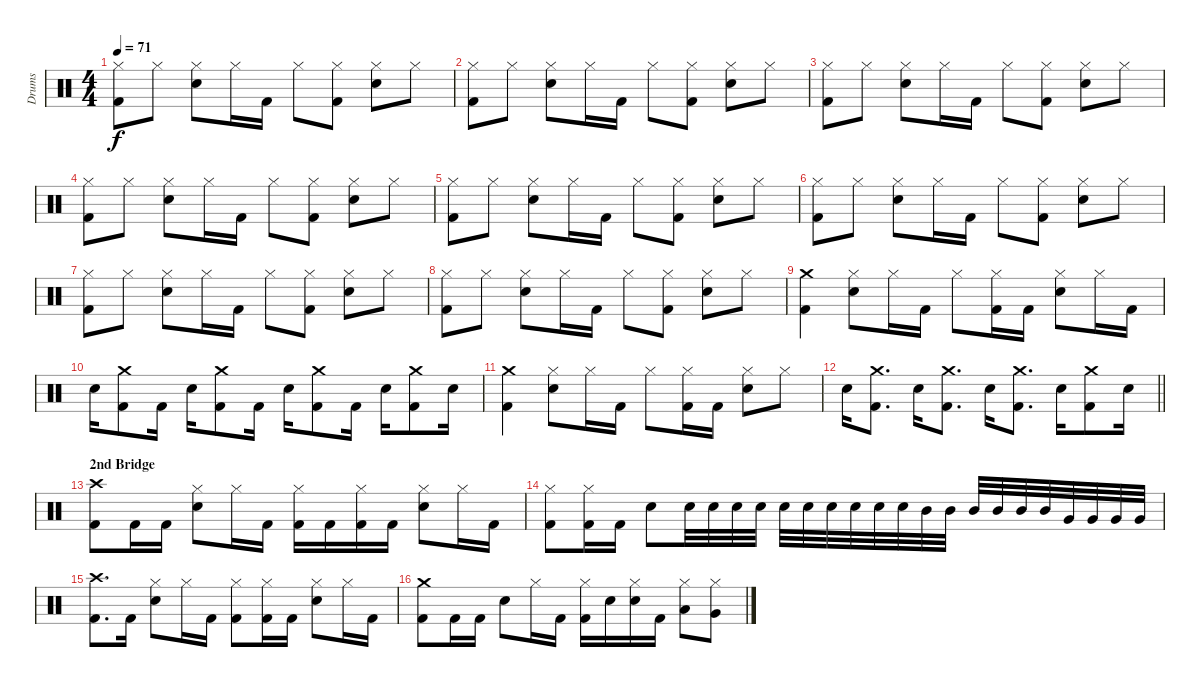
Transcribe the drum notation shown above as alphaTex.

\track ("Drums" "Drums") {instrument percussion}
\staff {score}
\articulation defaults
\ts (4 4)
\tempo 71
\clef neutral
\ks c
("Hi-Hat (closed)" "Kick (hit) 2").8{dy f} "Hi-Hat (closed)".8 ("Hi-Hat (closed)" "Snare (hit) 2").8 "Hi-Hat (closed)".16 "Kick (hit) 2".16 "Hi-Hat (closed)".8 ("Kick (hit) 2" "Hi-Hat (closed)").8 ("Hi-Hat (closed)" "Snare (hit) 2").8 "Hi-Hat (closed)".8 |
("Hi-Hat (closed)" "Kick (hit) 2").8 "Hi-Hat (closed)".8 ("Hi-Hat (closed)" "Snare (hit) 2").8 "Hi-Hat (closed)".16 "Kick (hit) 2".16 "Hi-Hat (closed)".8 ("Kick (hit) 2" "Hi-Hat (closed)").8 ("Hi-Hat (closed)" "Snare (hit) 2").8 "Hi-Hat (closed)".8 |
("Hi-Hat (closed)" "Kick (hit) 2").8 "Hi-Hat (closed)".8 ("Hi-Hat (closed)" "Snare (hit) 2").8 "Hi-Hat (closed)".16 "Kick (hit) 2".16 "Hi-Hat (closed)".8 ("Kick (hit) 2" "Hi-Hat (closed)").8 ("Hi-Hat (closed)" "Snare (hit) 2").8 "Hi-Hat (closed)".8 |
("Hi-Hat (closed)" "Kick (hit) 2").8 "Hi-Hat (closed)".8 ("Hi-Hat (closed)" "Snare (hit) 2").8 "Hi-Hat (closed)".16 "Kick (hit) 2".16 "Hi-Hat (closed)".8 ("Kick (hit) 2" "Hi-Hat (closed)").8 ("Hi-Hat (closed)" "Snare (hit) 2").8 "Hi-Hat (closed)".8 |
("Hi-Hat (closed)" "Kick (hit) 2").8 "Hi-Hat (closed)".8 ("Hi-Hat (closed)" "Snare (hit) 2").8 "Hi-Hat (closed)".16 "Kick (hit) 2".16 "Hi-Hat (closed)".8 ("Kick (hit) 2" "Hi-Hat (closed)").8 ("Hi-Hat (closed)" "Snare (hit) 2").8 "Hi-Hat (closed)".8 |
("Hi-Hat (closed)" "Kick (hit) 2").8 "Hi-Hat (closed)".8 ("Hi-Hat (closed)" "Snare (hit) 2").8 "Hi-Hat (closed)".16 "Kick (hit) 2".16 "Hi-Hat (closed)".8 ("Kick (hit) 2" "Hi-Hat (closed)").8 ("Hi-Hat (closed)" "Snare (hit) 2").8 "Hi-Hat (closed)".8 |
("Hi-Hat (closed)" "Kick (hit) 2").8 "Hi-Hat (closed)".8 ("Hi-Hat (closed)" "Snare (hit) 2").8 "Hi-Hat (closed)".16 "Kick (hit) 2".16 "Hi-Hat (closed)".8 ("Kick (hit) 2" "Hi-Hat (closed)").8 ("Hi-Hat (closed)" "Snare (hit) 2").8 "Hi-Hat (closed)".8 |
("Hi-Hat (closed)" "Kick (hit) 2").8 "Hi-Hat (closed)".8 ("Hi-Hat (closed)" "Snare (hit) 2").8 "Hi-Hat (closed)".16 "Kick (hit) 2".16 "Hi-Hat (closed)".8 ("Kick (hit) 2" "Hi-Hat (closed)").8 ("Hi-Hat (closed)" "Snare (hit) 2").8 "Hi-Hat (closed)".8 |
("Crash medium (hit)" "Kick (hit) 2").4 ("Snare (hit) 2" "Hi-Hat (closed)").8 "Hi-Hat (closed)".16 "Kick (hit) 2".16 "Hi-Hat (closed)".8 ("Hi-Hat (closed)" "Kick (hit) 2").16 "Kick (hit) 2".16 ("Hi-Hat (closed)" "Snare (hit) 2").8 "Hi-Hat (closed)".16 "Kick (hit) 2".16 |
"Snare (hit) 2".16 ("Crash medium (hit)" "Kick (hit) 2").8 "Kick (hit) 2".16 "Snare (hit) 2".16 ("Crash medium (hit)" "Kick (hit) 2").8 "Kick (hit) 2".16 "Snare (hit) 2".16 ("Crash medium (hit)" "Kick (hit) 2").8 "Kick (hit) 2".16 "Snare (hit) 2".16 ("Crash medium (hit)" "Kick (hit) 2").8 "Snare (hit) 2".16 |
("Kick (hit) 2" "Crash medium (hit)").4 ("Hi-Hat (closed)" "Snare (hit) 2").8 "Hi-Hat (closed)".16 "Kick (hit) 2".16 "Hi-Hat (closed)".8 ("Kick (hit) 2" "Hi-Hat (closed)").16 "Kick (hit) 2".16 ("Hi-Hat (closed)" "Snare (hit) 2").8 "Hi-Hat (closed)".8 |
\barLineRight lightlight "Snare (hit) 2".16
("Crash medium (hit)" "Kick (hit) 2").8{d} "Snare (hit) 2".16 ("Crash medium (hit)" "Kick (hit) 2").8{d} "Snare (hit) 2".16 ("Crash medium (hit)" "Kick (hit) 2").8{d} "Snare (hit) 2".16 ("Kick (hit) 2" "Crash medium (hit)").8 "Snare (hit) 2".16 |
\section ("" "2nd Bridge")
("Kick (hit) 2" "Crash high (hit)").8 "Kick (hit) 2".16 "Kick (hit) 2".16 ("Snare (hit) 2" "Hi-Hat (closed)").8 "Hi-Hat (closed)".16 "Kick (hit) 2".16 ("Hi-Hat (closed)" "Kick (hit) 2").16 "Kick (hit) 2".16 ("Hi-Hat (closed)" "Kick (hit) 2").16 "Kick (hit) 2".16 ("Hi-Hat (closed)" "Snare (hit) 2").8 "Hi-Hat (closed)".16 "Kick (hit) 2".16 |
("Hi-Hat (closed)" "Kick (hit) 2").8 ("Hi-Hat (closed)" "Kick (hit) 2").16 "Kick (hit) 2".16 "Snare (hit) 2".8 "Snare (hit) 2".32 "Snare (hit) 2".32 "Snare (hit) 2".32 "Snare (hit) 2".32 "Snare (hit) 2".32 "Snare (hit) 2".32 "Snare (hit) 2".32 "Snare (hit) 2".32 "Snare (hit) 2".32 "Snare (hit) 2".32 "Mid Tom (hit)".32 "Mid Tom (hit)".32 "Mid Tom (hit)".32 "Mid Tom (hit)".32 "Mid Tom (hit)".32 "Mid Tom (hit)".32 "Very Low Tom (hit)".32 "Very Low Tom (hit)".32 "Very Low Tom (hit)".32 "Very Low Tom (hit)".32 |
("Crash high (hit)" "Kick (hit) 2").8{d} "Kick (hit) 2".16 ("Snare (hit) 2" "Hi-Hat (closed)").8 "Hi-Hat (closed)".16 "Kick (hit) 2".16 ("Hi-Hat (closed)" "Kick (hit) 2").8 ("Kick (hit) 2" "Hi-Hat (closed)").16 "Kick (hit) 2".16 ("Snare (hit) 2" "Hi-Hat (closed)").8 "Hi-Hat (closed)".16 "Kick (hit) 2".16 |
("Crash medium (hit)" "Kick (hit) 2").8 "Kick (hit) 2".16 "Kick (hit) 2".16 "Snare (hit) 2".8 "Hi-Hat (closed)".16 "Kick (hit) 2".16 ("Hi-Hat (closed)" "Kick (hit) 2").16 "Snare (hit) 2".16 ("Hi-Hat (closed)" "Snare (hit) 2").16 "Kick (hit) 2".16 ("Hi-Hat (closed)" "Low Tom (hit)").8 ("Hi-Hat (closed)" "Very Low Tom (hit)").8
